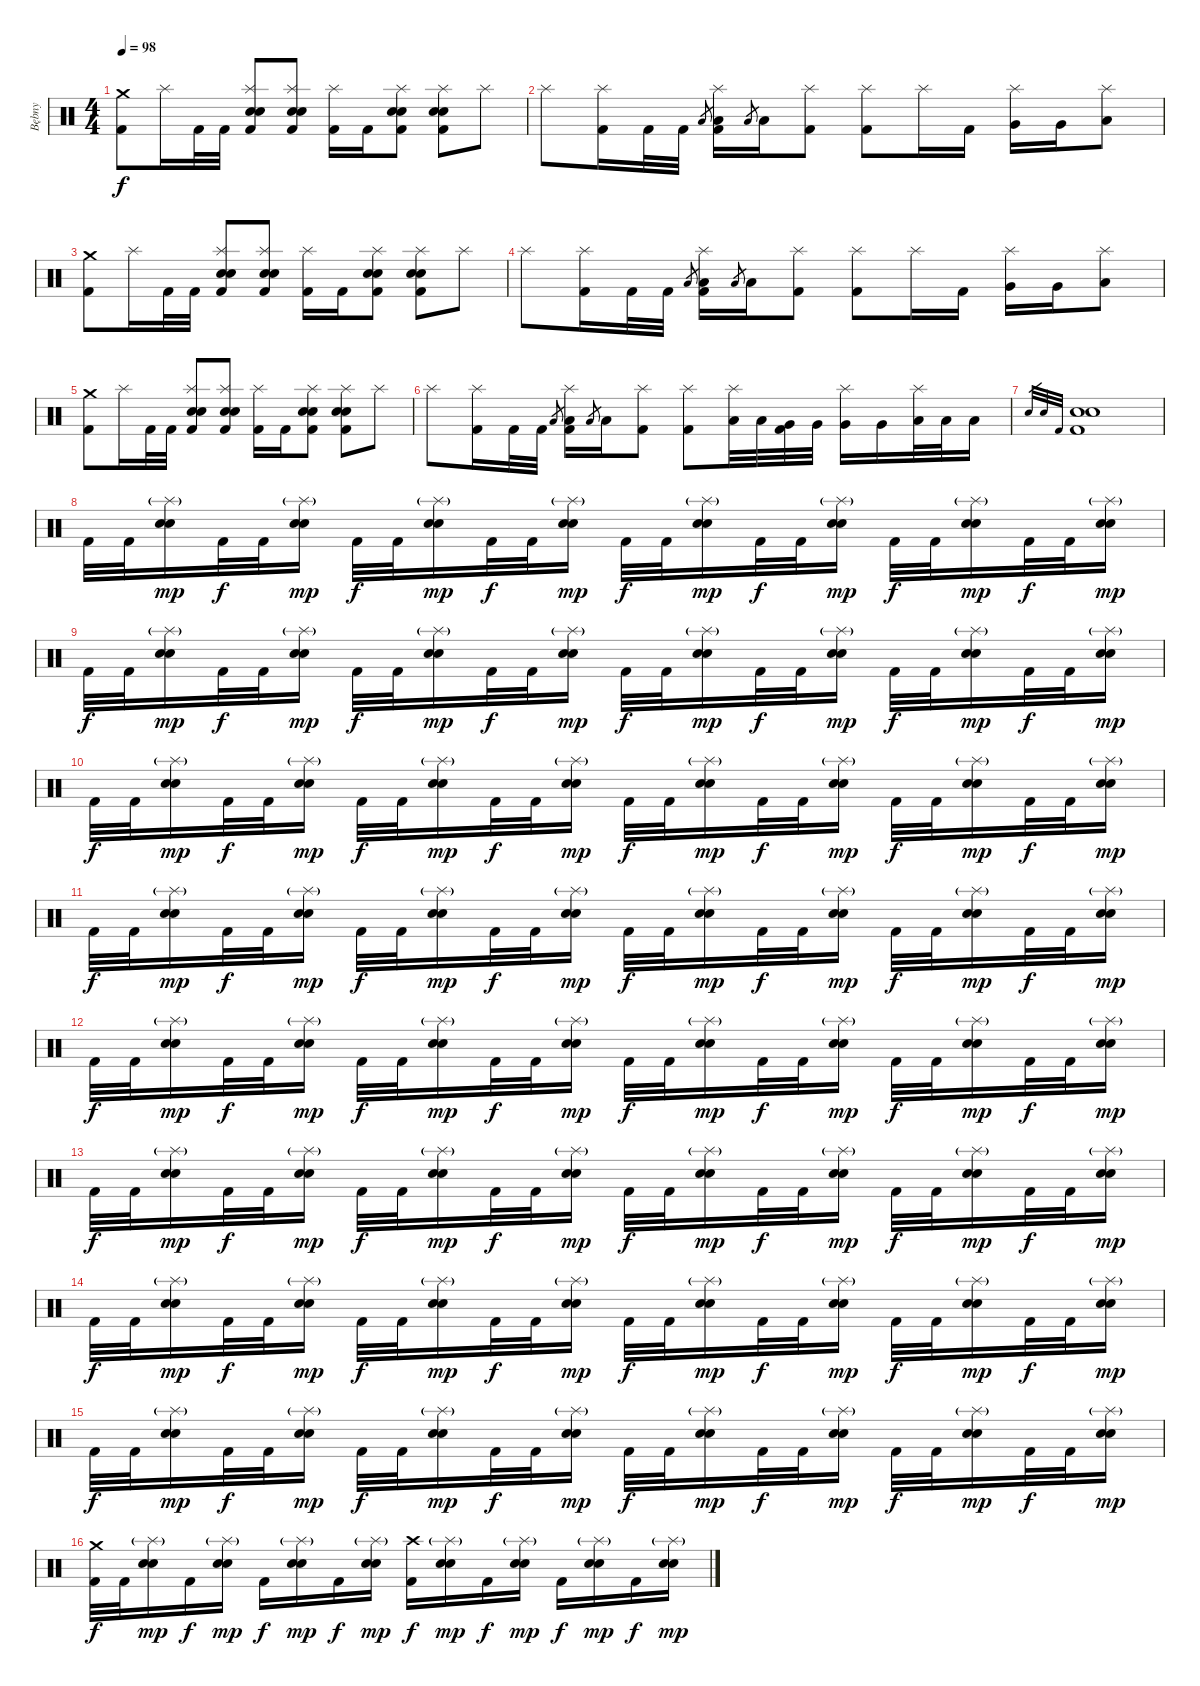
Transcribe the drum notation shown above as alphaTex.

\track ("Bębny" "Bębny") {instrument percussion}
\staff {score}
\articulation defaults
\ts (4 4)
\tempo 98
\clef neutral
\ks c
("Crash medium (hit)" "Kick (hit) 2").8{dy f} "Splash (hit)".16 "Kick (hit) 2".32 "Kick (hit) 2".32 ("Splash (hit)" "Snare (hit) 2" "Electric Snare (hit)" "Kick (hit) 2").8 ("Splash (hit)" "Snare (hit) 2" "Electric Snare (hit)" "Kick (hit) 2").8 ("Splash (hit)" "Kick (hit) 2").16 "Kick (hit) 2".16 ("Splash (hit)" "Snare (hit) 2" "Electric Snare (hit)" "Kick (hit) 2").8 ("Splash (hit)" "Snare (hit) 2" "Electric Snare (hit)" "Kick (hit) 2").8 "Splash (hit)".8 |
"Splash (hit)".8 ("Splash (hit)" "Kick (hit) 2").16 "Kick (hit) 2".32 "Kick (hit) 2".32 "Low Tom (hit)".8{gr} ("Splash (hit)" "Low Tom (hit)" "Kick (hit) 2").16 "Low Tom (hit)".8{gr} "Low Tom (hit)".16 ("Splash (hit)" "Kick (hit) 2").8 ("Splash (hit)" "Kick (hit) 2").8 "Splash (hit)".16 "Kick (hit) 2".16 ("Splash (hit)" "Very Low Tom (hit)").16 "Very Low Tom (hit)".16 ("Splash (hit)" "Low Floor Tom (hit)").8 |
("Crash medium (hit)" "Kick (hit) 2").8 "Splash (hit)".16 "Kick (hit) 2".32 "Kick (hit) 2".32 ("Splash (hit)" "Snare (hit) 2" "Electric Snare (hit)" "Kick (hit) 2").8 ("Splash (hit)" "Snare (hit) 2" "Electric Snare (hit)" "Kick (hit) 2").8 ("Splash (hit)" "Kick (hit) 2").16 "Kick (hit) 2".16 ("Splash (hit)" "Snare (hit) 2" "Electric Snare (hit)" "Kick (hit) 2").8 ("Splash (hit)" "Snare (hit) 2" "Electric Snare (hit)" "Kick (hit) 2").8 "Splash (hit)".8 |
"Splash (hit)".8 ("Splash (hit)" "Kick (hit) 2").16 "Kick (hit) 2".32 "Kick (hit) 2".32 "Low Tom (hit)".8{gr} ("Splash (hit)" "Low Tom (hit)" "Kick (hit) 2").16 "Low Tom (hit)".8{gr} "Low Tom (hit)".16 ("Splash (hit)" "Kick (hit) 2").8 ("Splash (hit)" "Kick (hit) 2").8 "Splash (hit)".16 "Kick (hit) 2".16 ("Splash (hit)" "Very Low Tom (hit)").16 "Very Low Tom (hit)".16 ("Splash (hit)" "Low Floor Tom (hit)").8 |
("Crash medium (hit)" "Kick (hit) 2").8 "Splash (hit)".16 "Kick (hit) 2".32 "Kick (hit) 2".32 ("Splash (hit)" "Snare (hit) 2" "Electric Snare (hit)" "Kick (hit) 2").8 ("Splash (hit)" "Snare (hit) 2" "Electric Snare (hit)" "Kick (hit) 2").8 ("Splash (hit)" "Kick (hit) 2").16 "Kick (hit) 2".16 ("Splash (hit)" "Snare (hit) 2" "Electric Snare (hit)" "Kick (hit) 2").8 ("Splash (hit)" "Snare (hit) 2" "Electric Snare (hit)" "Kick (hit) 2").8 "Splash (hit)".8 |
"Splash (hit)".8 ("Splash (hit)" "Kick (hit) 2").16 "Kick (hit) 2".32 "Kick (hit) 2".32 "Low Tom (hit)".8{gr} ("Splash (hit)" "Low Tom (hit)" "Kick (hit) 2").16 "Low Tom (hit)".8{gr} "Low Tom (hit)".16 ("Splash (hit)" "Kick (hit) 2").8 ("Splash (hit)" "Kick (hit) 2").8 ("Splash (hit)" "Low Tom (hit)").32 "Low Tom (hit)".32 ("Very Low Tom (hit)" "Kick (hit) 2").32 "Very Low Tom (hit)".32 ("Splash (hit)" "Very Low Tom (hit)").16 "Very Low Tom (hit)".16 ("Splash (hit)" "Low Floor Tom (hit)").32 "Low Floor Tom (hit)".32 "Low Floor Tom (hit)".16 |
"Snare (hit) 2".32{gr} "Electric Snare (hit)".32{gr} "Kick (hit) 2".32{gr} ("Snare (hit) 2" "Electric Snare (hit)" "Kick (hit) 2").1 |
"Kick (hit) 2".32 "Kick (hit) 2".32 ("Splash (hit)"{g} "Snare (hit) 2" "Electric Snare (hit)").16{dy mp} "Kick (hit) 2".32{dy f} "Kick (hit) 2".32 ("Splash (hit)"{g} "Snare (hit) 2" "Electric Snare (hit)").16{dy mp} "Kick (hit) 2".32{dy f} "Kick (hit) 2".32 ("Splash (hit)"{g} "Snare (hit) 2" "Electric Snare (hit)").16{dy mp} "Kick (hit) 2".32{dy f} "Kick (hit) 2".32 ("Splash (hit)"{g} "Snare (hit) 2" "Electric Snare (hit)").16{dy mp} "Kick (hit) 2".32{dy f} "Kick (hit) 2".32 ("Splash (hit)"{g} "Snare (hit) 2" "Electric Snare (hit)").16{dy mp} "Kick (hit) 2".32{dy f} "Kick (hit) 2".32 ("Splash (hit)"{g} "Snare (hit) 2" "Electric Snare (hit)").16{dy mp} "Kick (hit) 2".32{dy f} "Kick (hit) 2".32 ("Splash (hit)"{g} "Snare (hit) 2" "Electric Snare (hit)").16{dy mp} "Kick (hit) 2".32{dy f} "Kick (hit) 2".32 ("Splash (hit)"{g} "Snare (hit) 2" "Electric Snare (hit)").16{dy mp} |
"Kick (hit) 2".32{dy f} "Kick (hit) 2".32 ("Splash (hit)"{g} "Snare (hit) 2" "Electric Snare (hit)").16{dy mp} "Kick (hit) 2".32{dy f} "Kick (hit) 2".32 ("Splash (hit)"{g} "Snare (hit) 2" "Electric Snare (hit)").16{dy mp} "Kick (hit) 2".32{dy f} "Kick (hit) 2".32 ("Splash (hit)"{g} "Snare (hit) 2" "Electric Snare (hit)").16{dy mp} "Kick (hit) 2".32{dy f} "Kick (hit) 2".32 ("Splash (hit)"{g} "Snare (hit) 2" "Electric Snare (hit)").16{dy mp} "Kick (hit) 2".32{dy f} "Kick (hit) 2".32 ("Splash (hit)"{g} "Snare (hit) 2" "Electric Snare (hit)").16{dy mp} "Kick (hit) 2".32{dy f} "Kick (hit) 2".32 ("Splash (hit)"{g} "Snare (hit) 2" "Electric Snare (hit)").16{dy mp} "Kick (hit) 2".32{dy f} "Kick (hit) 2".32 ("Splash (hit)"{g} "Snare (hit) 2" "Electric Snare (hit)").16{dy mp} "Kick (hit) 2".32{dy f} "Kick (hit) 2".32 ("Splash (hit)"{g} "Snare (hit) 2" "Electric Snare (hit)").16{dy mp} |
"Kick (hit) 2".32{dy f} "Kick (hit) 2".32 ("Splash (hit)"{g} "Snare (hit) 2" "Electric Snare (hit)").16{dy mp} "Kick (hit) 2".32{dy f} "Kick (hit) 2".32 ("Splash (hit)"{g} "Snare (hit) 2" "Electric Snare (hit)").16{dy mp} "Kick (hit) 2".32{dy f} "Kick (hit) 2".32 ("Splash (hit)"{g} "Snare (hit) 2" "Electric Snare (hit)").16{dy mp} "Kick (hit) 2".32{dy f} "Kick (hit) 2".32 ("Splash (hit)"{g} "Snare (hit) 2" "Electric Snare (hit)").16{dy mp} "Kick (hit) 2".32{dy f} "Kick (hit) 2".32 ("Splash (hit)"{g} "Snare (hit) 2" "Electric Snare (hit)").16{dy mp} "Kick (hit) 2".32{dy f} "Kick (hit) 2".32 ("Splash (hit)"{g} "Snare (hit) 2" "Electric Snare (hit)").16{dy mp} "Kick (hit) 2".32{dy f} "Kick (hit) 2".32 ("Splash (hit)"{g} "Snare (hit) 2" "Electric Snare (hit)").16{dy mp} "Kick (hit) 2".32{dy f} "Kick (hit) 2".32 ("Splash (hit)"{g} "Snare (hit) 2" "Electric Snare (hit)").16{dy mp} |
"Kick (hit) 2".32{dy f} "Kick (hit) 2".32 ("Splash (hit)"{g} "Snare (hit) 2" "Electric Snare (hit)").16{dy mp} "Kick (hit) 2".32{dy f} "Kick (hit) 2".32 ("Splash (hit)"{g} "Snare (hit) 2" "Electric Snare (hit)").16{dy mp} "Kick (hit) 2".32{dy f} "Kick (hit) 2".32 ("Splash (hit)"{g} "Snare (hit) 2" "Electric Snare (hit)").16{dy mp} "Kick (hit) 2".32{dy f} "Kick (hit) 2".32 ("Splash (hit)"{g} "Snare (hit) 2" "Electric Snare (hit)").16{dy mp} "Kick (hit) 2".32{dy f} "Kick (hit) 2".32 ("Splash (hit)"{g} "Snare (hit) 2" "Electric Snare (hit)").16{dy mp} "Kick (hit) 2".32{dy f} "Kick (hit) 2".32 ("Splash (hit)"{g} "Snare (hit) 2" "Electric Snare (hit)").16{dy mp} "Kick (hit) 2".32{dy f} "Kick (hit) 2".32 ("Splash (hit)"{g} "Snare (hit) 2" "Electric Snare (hit)").16{dy mp} "Kick (hit) 2".32{dy f} "Kick (hit) 2".32 ("Splash (hit)"{g} "Snare (hit) 2" "Electric Snare (hit)").16{dy mp} |
"Kick (hit) 2".32{dy f} "Kick (hit) 2".32 ("Splash (hit)"{g} "Snare (hit) 2" "Electric Snare (hit)").16{dy mp} "Kick (hit) 2".32{dy f} "Kick (hit) 2".32 ("Splash (hit)"{g} "Snare (hit) 2" "Electric Snare (hit)").16{dy mp} "Kick (hit) 2".32{dy f} "Kick (hit) 2".32 ("Splash (hit)"{g} "Snare (hit) 2" "Electric Snare (hit)").16{dy mp} "Kick (hit) 2".32{dy f} "Kick (hit) 2".32 ("Splash (hit)"{g} "Snare (hit) 2" "Electric Snare (hit)").16{dy mp} "Kick (hit) 2".32{dy f} "Kick (hit) 2".32 ("Splash (hit)"{g} "Snare (hit) 2" "Electric Snare (hit)").16{dy mp} "Kick (hit) 2".32{dy f} "Kick (hit) 2".32 ("Splash (hit)"{g} "Snare (hit) 2" "Electric Snare (hit)").16{dy mp} "Kick (hit) 2".32{dy f} "Kick (hit) 2".32 ("Splash (hit)"{g} "Snare (hit) 2" "Electric Snare (hit)").16{dy mp} "Kick (hit) 2".32{dy f} "Kick (hit) 2".32 ("Splash (hit)"{g} "Snare (hit) 2" "Electric Snare (hit)").16{dy mp} |
"Kick (hit) 2".32{dy f} "Kick (hit) 2".32 ("Splash (hit)"{g} "Snare (hit) 2" "Electric Snare (hit)").16{dy mp} "Kick (hit) 2".32{dy f} "Kick (hit) 2".32 ("Splash (hit)"{g} "Snare (hit) 2" "Electric Snare (hit)").16{dy mp} "Kick (hit) 2".32{dy f} "Kick (hit) 2".32 ("Splash (hit)"{g} "Snare (hit) 2" "Electric Snare (hit)").16{dy mp} "Kick (hit) 2".32{dy f} "Kick (hit) 2".32 ("Splash (hit)"{g} "Snare (hit) 2" "Electric Snare (hit)").16{dy mp} "Kick (hit) 2".32{dy f} "Kick (hit) 2".32 ("Splash (hit)"{g} "Snare (hit) 2" "Electric Snare (hit)").16{dy mp} "Kick (hit) 2".32{dy f} "Kick (hit) 2".32 ("Splash (hit)"{g} "Snare (hit) 2" "Electric Snare (hit)").16{dy mp} "Kick (hit) 2".32{dy f} "Kick (hit) 2".32 ("Splash (hit)"{g} "Snare (hit) 2" "Electric Snare (hit)").16{dy mp} "Kick (hit) 2".32{dy f} "Kick (hit) 2".32 ("Splash (hit)"{g} "Snare (hit) 2" "Electric Snare (hit)").16{dy mp} |
"Kick (hit) 2".32{dy f} "Kick (hit) 2".32 ("Splash (hit)"{g} "Snare (hit) 2" "Electric Snare (hit)").16{dy mp} "Kick (hit) 2".32{dy f} "Kick (hit) 2".32 ("Splash (hit)"{g} "Snare (hit) 2" "Electric Snare (hit)").16{dy mp} "Kick (hit) 2".32{dy f} "Kick (hit) 2".32 ("Splash (hit)"{g} "Snare (hit) 2" "Electric Snare (hit)").16{dy mp} "Kick (hit) 2".32{dy f} "Kick (hit) 2".32 ("Splash (hit)"{g} "Snare (hit) 2" "Electric Snare (hit)").16{dy mp} "Kick (hit) 2".32{dy f} "Kick (hit) 2".32 ("Splash (hit)"{g} "Snare (hit) 2" "Electric Snare (hit)").16{dy mp} "Kick (hit) 2".32{dy f} "Kick (hit) 2".32 ("Splash (hit)"{g} "Snare (hit) 2" "Electric Snare (hit)").16{dy mp} "Kick (hit) 2".32{dy f} "Kick (hit) 2".32 ("Splash (hit)"{g} "Snare (hit) 2" "Electric Snare (hit)").16{dy mp} "Kick (hit) 2".32{dy f} "Kick (hit) 2".32 ("Splash (hit)"{g} "Snare (hit) 2" "Electric Snare (hit)").16{dy mp} |
"Kick (hit) 2".32{dy f} "Kick (hit) 2".32 ("Splash (hit)"{g} "Snare (hit) 2" "Electric Snare (hit)").16{dy mp} "Kick (hit) 2".32{dy f} "Kick (hit) 2".32 ("Splash (hit)"{g} "Snare (hit) 2" "Electric Snare (hit)").16{dy mp} "Kick (hit) 2".32{dy f} "Kick (hit) 2".32 ("Splash (hit)"{g} "Snare (hit) 2" "Electric Snare (hit)").16{dy mp} "Kick (hit) 2".32{dy f} "Kick (hit) 2".32 ("Splash (hit)"{g} "Snare (hit) 2" "Electric Snare (hit)").16{dy mp} "Kick (hit) 2".32{dy f} "Kick (hit) 2".32 ("Splash (hit)"{g} "Snare (hit) 2" "Electric Snare (hit)").16{dy mp} "Kick (hit) 2".32{dy f} "Kick (hit) 2".32 ("Splash (hit)"{g} "Snare (hit) 2" "Electric Snare (hit)").16{dy mp} "Kick (hit) 2".32{dy f} "Kick (hit) 2".32 ("Splash (hit)"{g} "Snare (hit) 2" "Electric Snare (hit)").16{dy mp} "Kick (hit) 2".32{dy f} "Kick (hit) 2".32 ("Splash (hit)"{g} "Snare (hit) 2" "Electric Snare (hit)").16{dy mp} |
("Crash medium (hit)" "Kick (hit) 2").32{dy f} "Kick (hit) 2".32 ("Splash (hit)"{g} "Snare (hit) 2" "Electric Snare (hit)").16{dy mp} "Kick (hit) 2".16{dy f} ("Splash (hit)"{g} "Snare (hit) 2" "Electric Snare (hit)").16{dy mp} "Kick (hit) 2".16{dy f} ("Splash (hit)"{g} "Snare (hit) 2" "Electric Snare (hit)").16{dy mp} "Kick (hit) 2".16{dy f} ("Splash (hit)"{g} "Snare (hit) 2" "Electric Snare (hit)").16{dy mp} ("Crash high (hit)" "Kick (hit) 2").16{dy f} ("Splash (hit)"{g} "Snare (hit) 2" "Electric Snare (hit)").16{dy mp} "Kick (hit) 2".16{dy f} ("Splash (hit)"{g} "Snare (hit) 2" "Electric Snare (hit)").16{dy mp} "Kick (hit) 2".16{dy f} ("Splash (hit)"{g} "Snare (hit) 2" "Electric Snare (hit)").16{dy mp} "Kick (hit) 2".16{dy f} ("Splash (hit)"{g} "Snare (hit) 2" "Electric Snare (hit)").16{dy mp}
